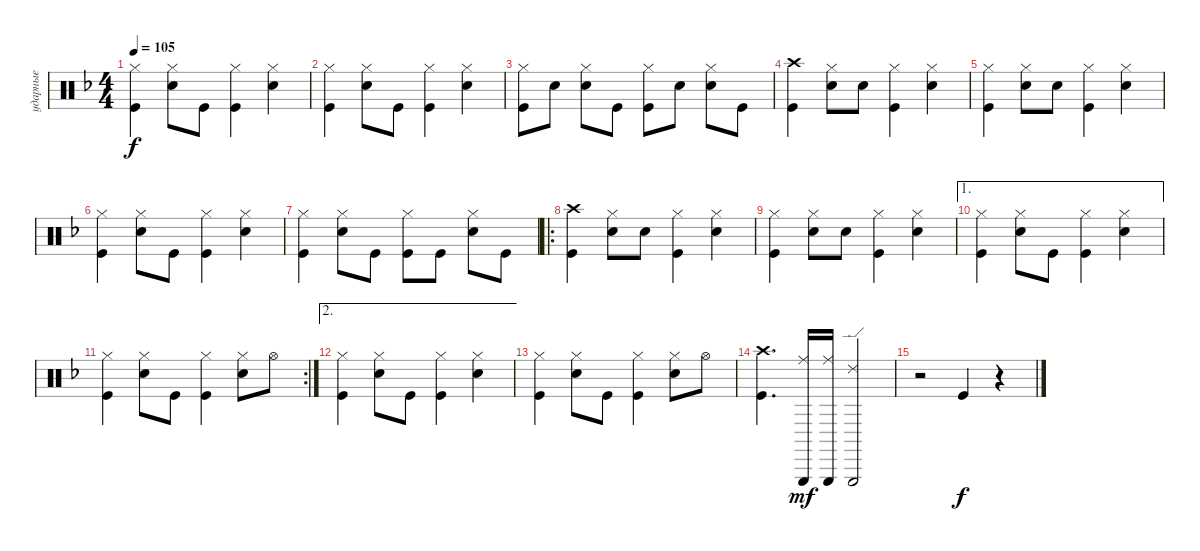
\track ("ударные" "ударные") {instrument percussion}
\staff {score}
\articulation defaults
\ts (4 4)
\tempo 105
\clef neutral
\ks f
("Kick (hit)" "Hi-Hat (closed)").4{dy f} ("Snare (hit) 2" "Hi-Hat (closed)").8 "Kick (hit)".8 ("Kick (hit)" "Hi-Hat (closed)").4 ("Snare (hit) 2" "Hi-Hat (closed)").4 |
("Kick (hit)" "Hi-Hat (closed)").4 ("Snare (hit) 2" "Hi-Hat (closed)").8 "Kick (hit)".8 ("Kick (hit)" "Hi-Hat (closed)").4 ("Snare (hit) 2" "Hi-Hat (closed)").4 |
("Kick (hit)" "Hi-Hat (closed)").8 "Snare (hit) 2".8 ("Snare (hit) 2" "Hi-Hat (closed)").8 "Kick (hit)".8 ("Kick (hit)" "Hi-Hat (closed)").8 "Snare (hit) 2".8 ("Snare (hit) 2" "Hi-Hat (closed)").8 "Kick (hit)".8 |
("Kick (hit)" "Crash high (hit)").4 ("Snare (hit) 2" "Hi-Hat (closed)").8 "Snare (hit) 2".8 ("Hi-Hat (closed)" "Kick (hit)").4 ("Snare (hit) 2" "Hi-Hat (closed)").4 |
("Kick (hit)" "Hi-Hat (closed)").4 ("Snare (hit) 2" "Hi-Hat (closed)").8 "Snare (hit) 2".8 ("Hi-Hat (closed)" "Kick (hit)").4 ("Snare (hit) 2" "Hi-Hat (closed)").4 |
("Kick (hit)" "Hi-Hat (closed)").4 ("Snare (hit) 2" "Hi-Hat (closed)").8 "Kick (hit)".8 ("Kick (hit)" "Hi-Hat (closed)").4 ("Snare (hit) 2" "Hi-Hat (closed)").4 |
("Kick (hit)" "Hi-Hat (closed)").4 ("Snare (hit) 2" "Hi-Hat (closed)").8 "Kick (hit)".8 ("Kick (hit)" "Hi-Hat (closed)").8 "Kick (hit)".8 ("Snare (hit) 2" "Hi-Hat (closed)").8 "Kick (hit)".8 |
\ro
("Kick (hit)" "Crash high (hit)").4 ("Snare (hit) 2" "Hi-Hat (closed)").8 "Snare (hit) 2".8 ("Hi-Hat (closed)" "Kick (hit)").4 ("Snare (hit) 2" "Hi-Hat (closed)").4 |
("Kick (hit)" "Hi-Hat (closed)").4 ("Snare (hit) 2" "Hi-Hat (closed)").8 "Snare (hit) 2".8 ("Hi-Hat (closed)" "Kick (hit)").4 ("Snare (hit) 2" "Hi-Hat (closed)").4 |
\ae 1
("Kick (hit)" "Hi-Hat (closed)").4 ("Snare (hit) 2" "Hi-Hat (closed)").8 "Kick (hit)".8 ("Kick (hit)" "Hi-Hat (closed)").4 ("Snare (hit) 2" "Hi-Hat (closed)").4 |
\rc 2
("Kick (hit)" "Hi-Hat (closed)").4 ("Snare (hit) 2" "Hi-Hat (closed)").8 "Kick (hit)".8 ("Kick (hit)" "Hi-Hat (closed)").4 ("Snare (hit) 2" "Hi-Hat (closed)").8 "Hi-Hat (open)".8 |
\ae 2
("Kick (hit)" "Hi-Hat (closed)").4 ("Snare (hit) 2" "Hi-Hat (closed)").8 "Kick (hit)".8 ("Kick (hit)" "Hi-Hat (closed)").4 ("Snare (hit) 2" "Hi-Hat (closed)").4 |
("Kick (hit)" "Hi-Hat (closed)").4 ("Snare (hit) 2" "Hi-Hat (closed)").8 "Kick (hit)".8 ("Kick (hit)" "Hi-Hat (closed)").4 ("Snare (hit) 2" "Hi-Hat (closed)").8 "Hi-Hat (open)".8 |
("Kick (hit)" "Crash high (hit)").4{d} ("Triangle (hit)" "Ride (middle)").16{dy mf} ("Triangle (hit)" "Ride (middle)").16 ("Triangle (hit)" "Ride (edge) 2").2 |
r.2 "Kick (hit)".4{dy f} r.4
